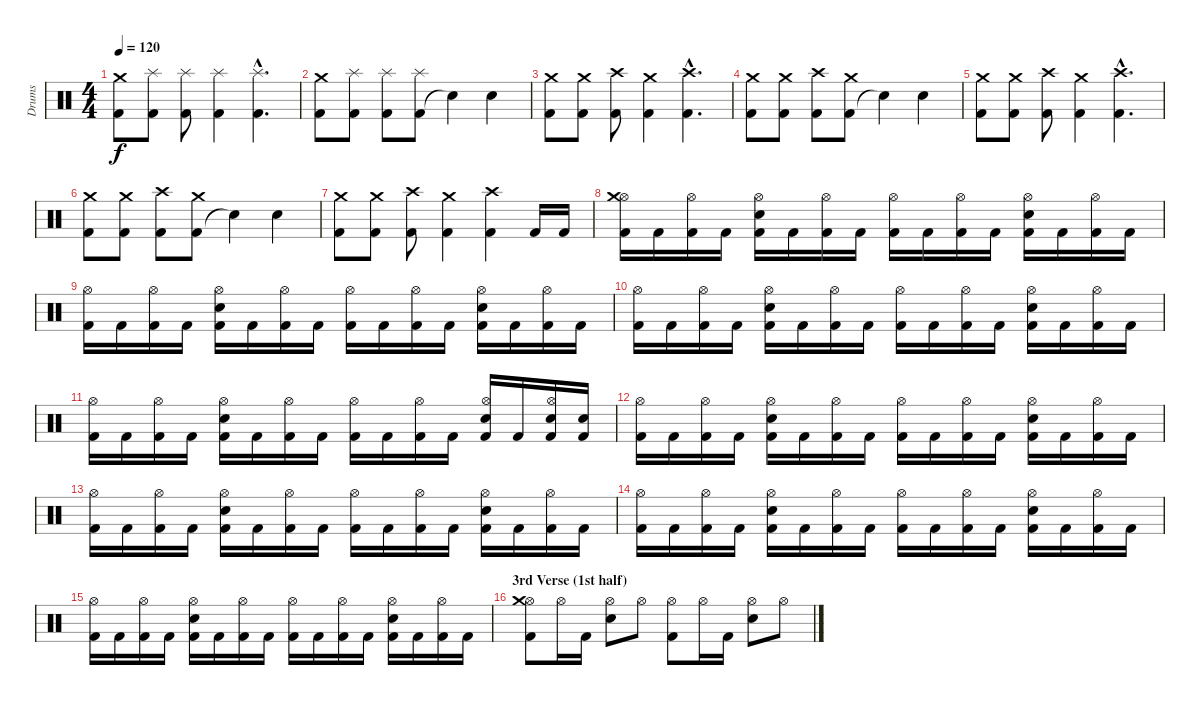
\track ("Drums" "Drums") {instrument percussion}
\staff {score}
\articulation defaults
\ts (4 4)
\tempo 120
\clef neutral
\ks c
("Kick (hit) 2" "Crash medium (hit)").8{dy f} ("Kick (hit) 2" "Splash (hit)").8 ("Kick (hit) 2" "Splash (hit)").8 ("Kick (hit) 2" "Splash (hit)").4 ("Kick (hit) 2"{hac} "Splash (hit)"{hac}).4{d} |
("Kick (hit) 2" "Crash medium (hit)").8 ("Kick (hit) 2" "Splash (hit)").8 ("Kick (hit) 2" "Splash (hit)").8 ("Kick (hit) 2" "Splash (hit)").8 "Snare (hit)"{t}.4 "Snare (hit) 2".4 |
("Kick (hit) 2" "Crash medium (hit)").8 ("Kick (hit) 2" "Crash medium (hit)").8 ("Kick (hit) 2" "Crash high (hit)").8 ("Kick (hit) 2" "Crash medium (hit)").4 ("Kick (hit) 2"{hac} "Crash high (hit)"{hac}).4{d} |
("Kick (hit) 2" "Crash medium (hit)").8 ("Kick (hit) 2" "Crash medium (hit)").8 ("Kick (hit) 2" "Crash high (hit)").8 ("Kick (hit) 2" "Crash medium (hit)").8 "Snare (hit)"{t}.4 "Snare (hit) 2".4 |
("Kick (hit) 2" "Crash medium (hit)").8 ("Kick (hit) 2" "Crash medium (hit)").8 ("Kick (hit) 2" "Crash high (hit)").8 ("Kick (hit) 2" "Crash medium (hit)").4 ("Kick (hit) 2"{hac} "Crash high (hit)"{hac}).4{d} |
("Kick (hit) 2" "Crash medium (hit)").8 ("Kick (hit) 2" "Crash medium (hit)").8 ("Kick (hit) 2" "Crash high (hit)").8 ("Kick (hit) 2" "Crash medium (hit)").8 "Snare (hit)"{t}.4 "Snare (hit) 2".4 |
("Kick (hit) 2" "Crash medium (hit)").8 ("Kick (hit) 2" "Crash medium (hit)").8 ("Kick (hit) 2" "Crash high (hit)").8 ("Kick (hit) 2" "Crash medium (hit)").4 ("Kick (hit) 2" "Crash high (hit)").4 "Kick (hit) 2".16 "Kick (hit) 2".16 |
("Kick (hit) 2" "Hi-Hat (open)" "Crash medium (hit)").16 "Kick (hit) 2".16 ("Kick (hit) 2" "Hi-Hat (open)").16 "Kick (hit) 2".16 ("Kick (hit) 2" "Electric Snare (hit)" "Hi-Hat (open)").16 "Kick (hit) 2".16 ("Kick (hit) 2" "Hi-Hat (open)").16 "Kick (hit) 2".16 ("Kick (hit) 2" "Hi-Hat (open)").16 "Kick (hit) 2".16 ("Kick (hit) 2" "Hi-Hat (open)").16 "Kick (hit) 2".16 ("Kick (hit) 2" "Electric Snare (hit)" "Hi-Hat (open)").16 "Kick (hit) 2".16 ("Kick (hit) 2" "Hi-Hat (open)").16 "Kick (hit) 2".16 |
("Kick (hit) 2" "Hi-Hat (open)").16 "Kick (hit) 2".16 ("Kick (hit) 2" "Hi-Hat (open)").16 "Kick (hit) 2".16 ("Kick (hit) 2" "Electric Snare (hit)" "Hi-Hat (open)").16 "Kick (hit) 2".16 ("Kick (hit) 2" "Hi-Hat (open)").16 "Kick (hit) 2".16 ("Kick (hit) 2" "Hi-Hat (open)").16 "Kick (hit) 2".16 ("Kick (hit) 2" "Hi-Hat (open)").16 "Kick (hit) 2".16 ("Kick (hit) 2" "Electric Snare (hit)" "Hi-Hat (open)").16 "Kick (hit) 2".16 ("Kick (hit) 2" "Hi-Hat (open)").16 "Kick (hit) 2".16 |
("Kick (hit) 2" "Hi-Hat (open)").16 "Kick (hit) 2".16 ("Kick (hit) 2" "Hi-Hat (open)").16 "Kick (hit) 2".16 ("Kick (hit) 2" "Electric Snare (hit)" "Hi-Hat (open)").16 "Kick (hit) 2".16 ("Kick (hit) 2" "Hi-Hat (open)").16 "Kick (hit) 2".16 ("Kick (hit) 2" "Hi-Hat (open)").16 "Kick (hit) 2".16 ("Kick (hit) 2" "Hi-Hat (open)").16 "Kick (hit) 2".16 ("Kick (hit) 2" "Electric Snare (hit)" "Hi-Hat (open)").16 "Kick (hit) 2".16 ("Kick (hit) 2" "Hi-Hat (open)").16 "Kick (hit) 2".16 |
("Kick (hit) 2" "Hi-Hat (open)").16 "Kick (hit) 2".16 ("Kick (hit) 2" "Hi-Hat (open)").16 "Kick (hit) 2".16 ("Kick (hit) 2" "Electric Snare (hit)" "Hi-Hat (open)").16 "Kick (hit) 2".16 ("Kick (hit) 2" "Hi-Hat (open)").16 "Kick (hit) 2".16 ("Kick (hit) 2" "Hi-Hat (open)").16 "Kick (hit) 2".16 ("Kick (hit) 2" "Hi-Hat (open)").16 "Kick (hit) 2".16 ("Kick (hit) 2" "Electric Snare (hit)" "Hi-Hat (open)").16 "Kick (hit) 2".16 ("Kick (hit) 2" "Electric Snare (hit)" "Hi-Hat (open)").16 ("Kick (hit) 2" "Electric Snare (hit)").16 |
("Kick (hit) 2" "Hi-Hat (open)").16 "Kick (hit) 2".16 ("Kick (hit) 2" "Hi-Hat (open)").16 "Kick (hit) 2".16 ("Kick (hit) 2" "Electric Snare (hit)" "Hi-Hat (open)").16 "Kick (hit) 2".16 ("Kick (hit) 2" "Hi-Hat (open)").16 "Kick (hit) 2".16 ("Kick (hit) 2" "Hi-Hat (open)").16 "Kick (hit) 2".16 ("Kick (hit) 2" "Hi-Hat (open)").16 "Kick (hit) 2".16 ("Kick (hit) 2" "Electric Snare (hit)" "Hi-Hat (open)").16 "Kick (hit) 2".16 ("Kick (hit) 2" "Hi-Hat (open)").16 "Kick (hit) 2".16 |
("Kick (hit) 2" "Hi-Hat (open)").16 "Kick (hit) 2".16 ("Kick (hit) 2" "Hi-Hat (open)").16 "Kick (hit) 2".16 ("Kick (hit) 2" "Electric Snare (hit)" "Hi-Hat (open)").16 "Kick (hit) 2".16 ("Kick (hit) 2" "Hi-Hat (open)").16 "Kick (hit) 2".16 ("Kick (hit) 2" "Hi-Hat (open)").16 "Kick (hit) 2".16 ("Kick (hit) 2" "Hi-Hat (open)").16 "Kick (hit) 2".16 ("Kick (hit) 2" "Electric Snare (hit)" "Hi-Hat (open)").16 "Kick (hit) 2".16 ("Kick (hit) 2" "Hi-Hat (open)").16 "Kick (hit) 2".16 |
("Kick (hit) 2" "Hi-Hat (open)").16 "Kick (hit) 2".16 ("Kick (hit) 2" "Hi-Hat (open)").16 "Kick (hit) 2".16 ("Kick (hit) 2" "Electric Snare (hit)" "Hi-Hat (open)").16 "Kick (hit) 2".16 ("Kick (hit) 2" "Hi-Hat (open)").16 "Kick (hit) 2".16 ("Kick (hit) 2" "Hi-Hat (open)").16 "Kick (hit) 2".16 ("Kick (hit) 2" "Hi-Hat (open)").16 "Kick (hit) 2".16 ("Kick (hit) 2" "Electric Snare (hit)" "Hi-Hat (open)").16 "Kick (hit) 2".16 ("Kick (hit) 2" "Hi-Hat (open)").16 "Kick (hit) 2".16 |
("Kick (hit) 2" "Hi-Hat (open)").16 "Kick (hit) 2".16 ("Kick (hit) 2" "Hi-Hat (open)").16 "Kick (hit) 2".16 ("Kick (hit) 2" "Electric Snare (hit)" "Hi-Hat (open)").16 "Kick (hit) 2".16 ("Kick (hit) 2" "Hi-Hat (open)").16 "Kick (hit) 2".16 ("Kick (hit) 2" "Hi-Hat (open)").16 "Kick (hit) 2".16 ("Kick (hit) 2" "Hi-Hat (open)").16 "Kick (hit) 2".16 ("Kick (hit) 2" "Electric Snare (hit)" "Hi-Hat (open)").16 "Kick (hit) 2".16 ("Kick (hit) 2" "Hi-Hat (open)").16 "Kick (hit) 2".16 |
\section ("" "3rd Verse (1st half)")
("Kick (hit) 2" "Hi-Hat (open)" "Crash medium (hit)").8 "Hi-Hat (open)".16 "Kick (hit) 2".16 ("Electric Snare (hit)" "Hi-Hat (open)").8 "Hi-Hat (open)".8 ("Kick (hit) 2" "Hi-Hat (open)").8 "Hi-Hat (open)".16 "Kick (hit) 2".16 ("Electric Snare (hit)" "Hi-Hat (open)").8 "Hi-Hat (open)".8
